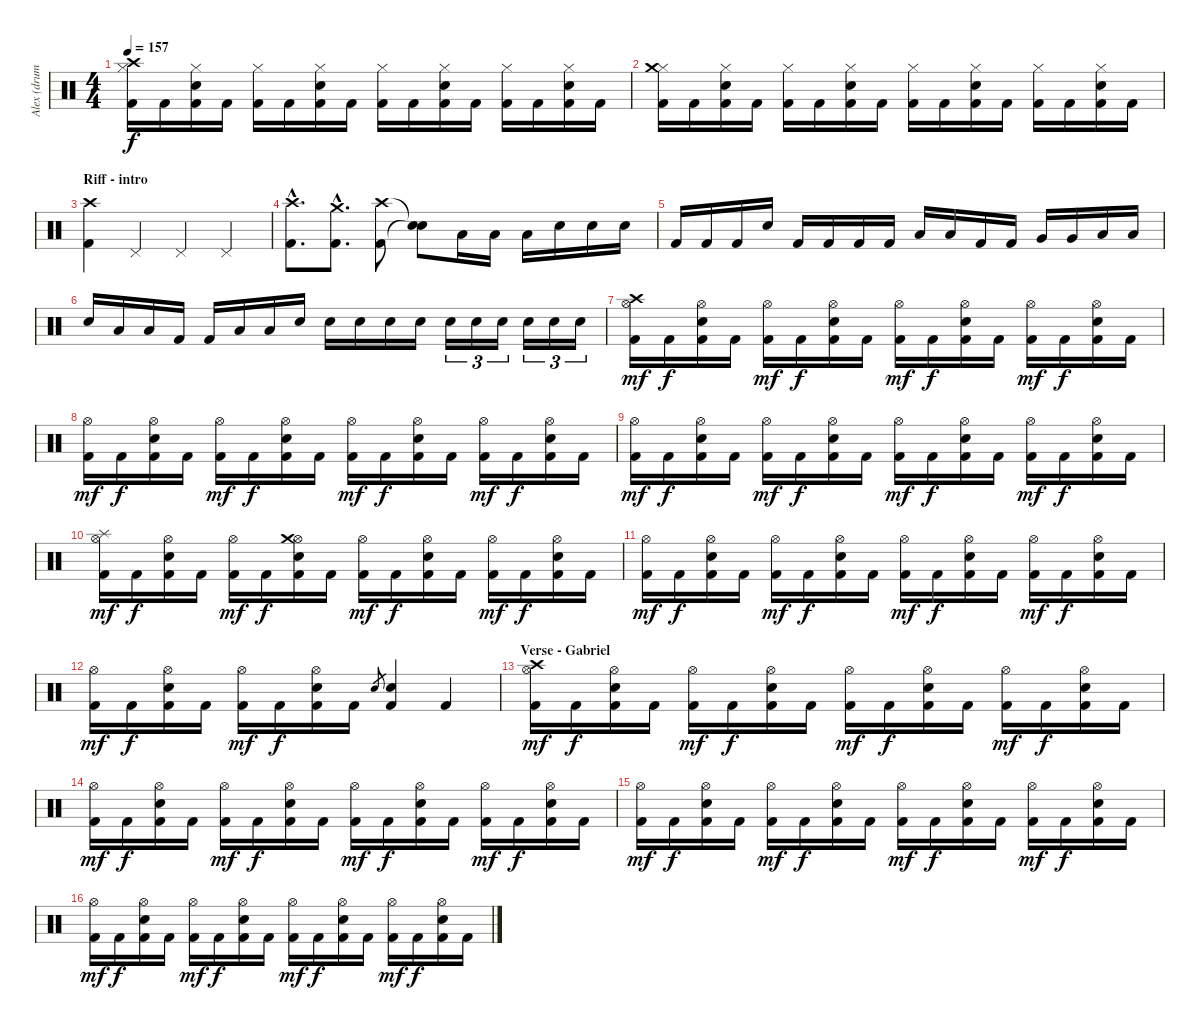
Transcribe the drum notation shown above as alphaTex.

\track ("Alex (drums)" "Alex (drum") {instrument percussion}
\staff {score}
\articulation defaults
\ts (4 4)
\tempo 157
\clef neutral
\ks c
("Hi-Hat (closed)" "Kick (hit) 2" "Crash high (hit)").16{dy f} "Kick (hit) 2".16 ("Hi-Hat (closed)" "Snare (hit) 2" "Kick (hit) 2").16 "Kick (hit) 2".16 ("Hi-Hat (closed)" "Kick (hit) 2").16 "Kick (hit) 2".16 ("Hi-Hat (closed)" "Snare (hit) 2" "Kick (hit) 2").16 "Kick (hit) 2".16 ("Hi-Hat (closed)" "Kick (hit) 2").16 "Kick (hit) 2".16 ("Hi-Hat (closed)" "Snare (hit) 2" "Kick (hit) 2").16 "Kick (hit) 2".16 ("Hi-Hat (closed)" "Kick (hit) 2").16 "Kick (hit) 2".16 ("Hi-Hat (closed)" "Snare (hit) 2" "Kick (hit) 2").16 "Kick (hit) 2".16 |
("Hi-Hat (closed)" "Kick (hit) 2" "Crash medium (hit)").16 "Kick (hit) 2".16 ("Hi-Hat (closed)" "Snare (hit) 2" "Kick (hit) 2").16 "Kick (hit) 2".16 ("Hi-Hat (closed)" "Kick (hit) 2").16 "Kick (hit) 2".16 ("Hi-Hat (closed)" "Snare (hit) 2" "Kick (hit) 2").16 "Kick (hit) 2".16 ("Hi-Hat (closed)" "Kick (hit) 2").16 "Kick (hit) 2".16 ("Hi-Hat (closed)" "Snare (hit) 2" "Kick (hit) 2").16 "Kick (hit) 2".16 ("Hi-Hat (closed)" "Kick (hit) 2").16 "Kick (hit) 2".16 ("Hi-Hat (closed)" "Snare (hit) 2" "Kick (hit) 2").16 "Kick (hit) 2".16 |
\section ("" "Riff - intro")
("Kick (hit) 2" "Crash high (hit)").4 "Pedal Hi-Hat (hit)".4 "Pedal Hi-Hat (hit)".4 "Pedal Hi-Hat (hit)".4 |
("Kick (hit) 2"{hac} "Crash high (hit)"{hac}).8{d} ("Kick (hit) 2"{hac} "Crash medium (hit)"{hac}).8{d} ("Kick (hit) 2" "Crash high (hit)").8 ("Snare (hit)"{t} "Snare (hit)"{t}).8 "Low Tom (hit)".16 "Low Tom (hit)".16 "Low Tom (hit)".16 "Snare (hit) 2".16 "Snare (hit) 2".16 "Snare (hit) 2".16 |
"Kick (hit) 2".16 "Kick (hit) 2".16 "Kick (hit) 2".16 "Snare (hit) 2".16 "Kick (hit) 2".16 "Kick (hit) 2".16 "Kick (hit) 2".16 "Kick (hit) 2".16 "Low Tom (hit)".16 "Low Tom (hit)".16 "Kick (hit) 2".16 "Kick (hit) 2".16 "Very Low Tom (hit)".16 "Very Low Tom (hit)".16 "Low Tom (hit)".16 "Low Tom (hit)".16 |
"Snare (hit) 2".16 "Low Tom (hit)".16 "Low Tom (hit)".16 "Kick (hit) 2".16 "Kick (hit) 2".16 "Low Tom (hit)".16 "Low Tom (hit)".16 "Snare (hit) 2".16 "Snare (hit) 2".16 "Snare (hit) 2".16 "Snare (hit) 2".16 "Snare (hit) 2".16 "Snare (hit) 2".16{tu (3 2)} "Snare (hit) 2".16{tu (3 2)} "Snare (hit) 2".16{tu (3 2)} "Snare (hit) 2".16{tu (3 2)} "Snare (hit) 2".16{tu (3 2)} "Snare (hit) 2".16{tu (3 2)} |
("Hi-Hat (open)" "Kick (hit) 2" "Crash high (hit)").16{dy mf} "Kick (hit) 2".16{dy f} ("Hi-Hat (open)" "Snare (hit) 2" "Kick (hit) 2").16 "Kick (hit) 2".16 ("Hi-Hat (open)" "Kick (hit) 2").16{dy mf} "Kick (hit) 2".16{dy f} ("Hi-Hat (open)" "Snare (hit) 2" "Kick (hit) 2").16 "Kick (hit) 2".16 ("Hi-Hat (open)" "Kick (hit) 2").16{dy mf} "Kick (hit) 2".16{dy f} ("Hi-Hat (open)" "Snare (hit) 2" "Kick (hit) 2").16 "Kick (hit) 2".16 ("Hi-Hat (open)" "Kick (hit) 2").16{dy mf} "Kick (hit) 2".16{dy f} ("Hi-Hat (open)" "Snare (hit) 2" "Kick (hit) 2").16 "Kick (hit) 2".16 |
("Hi-Hat (open)" "Kick (hit) 2").16{dy mf} "Kick (hit) 2".16{dy f} ("Hi-Hat (open)" "Snare (hit) 2" "Kick (hit) 2").16 "Kick (hit) 2".16 ("Hi-Hat (open)" "Kick (hit) 2").16{dy mf} "Kick (hit) 2".16{dy f} ("Hi-Hat (open)" "Snare (hit) 2" "Kick (hit) 2").16 "Kick (hit) 2".16 ("Hi-Hat (open)" "Kick (hit) 2").16{dy mf} "Kick (hit) 2".16{dy f} ("Hi-Hat (open)" "Snare (hit) 2" "Kick (hit) 2").16 "Kick (hit) 2".16 ("Hi-Hat (open)" "Kick (hit) 2").16{dy mf} "Kick (hit) 2".16{dy f} ("Hi-Hat (open)" "Snare (hit) 2" "Kick (hit) 2").16 "Kick (hit) 2".16 |
("Hi-Hat (open)" "Kick (hit) 2").16{dy mf} "Kick (hit) 2".16{dy f} ("Hi-Hat (open)" "Snare (hit) 2" "Kick (hit) 2").16 "Kick (hit) 2".16 ("Hi-Hat (open)" "Kick (hit) 2").16{dy mf} "Kick (hit) 2".16{dy f} ("Hi-Hat (open)" "Snare (hit) 2" "Kick (hit) 2").16 "Kick (hit) 2".16 ("Hi-Hat (open)" "Kick (hit) 2").16{dy mf} "Kick (hit) 2".16{dy f} ("Hi-Hat (open)" "Snare (hit) 2" "Kick (hit) 2").16 "Kick (hit) 2".16 ("Hi-Hat (open)" "Kick (hit) 2").16{dy mf} "Kick (hit) 2".16{dy f} ("Hi-Hat (open)" "Snare (hit) 2" "Kick (hit) 2").16 "Kick (hit) 2".16 |
("Hi-Hat (open)" "Kick (hit) 2" "Splash (hit)").16{dy mf} "Kick (hit) 2".16{dy f} ("Hi-Hat (open)" "Snare (hit) 2" "Kick (hit) 2").16 "Kick (hit) 2".16 ("Hi-Hat (open)" "Kick (hit) 2").16{dy mf} "Kick (hit) 2".16{dy f} ("Hi-Hat (open)" "Snare (hit) 2" "Kick (hit) 2" "Crash medium (hit)").16 "Kick (hit) 2".16 ("Hi-Hat (open)" "Kick (hit) 2").16{dy mf} "Kick (hit) 2".16{dy f} ("Hi-Hat (open)" "Snare (hit) 2" "Kick (hit) 2").16 "Kick (hit) 2".16 ("Hi-Hat (open)" "Kick (hit) 2").16{dy mf} "Kick (hit) 2".16{dy f} ("Hi-Hat (open)" "Snare (hit) 2" "Kick (hit) 2").16 "Kick (hit) 2".16 |
("Hi-Hat (open)" "Kick (hit) 2").16{dy mf} "Kick (hit) 2".16{dy f} ("Hi-Hat (open)" "Snare (hit) 2" "Kick (hit) 2").16 "Kick (hit) 2".16 ("Hi-Hat (open)" "Kick (hit) 2").16{dy mf} "Kick (hit) 2".16{dy f} ("Hi-Hat (open)" "Snare (hit) 2" "Kick (hit) 2").16 "Kick (hit) 2".16 ("Hi-Hat (open)" "Kick (hit) 2").16{dy mf} "Kick (hit) 2".16{dy f} ("Hi-Hat (open)" "Snare (hit) 2" "Kick (hit) 2").16 "Kick (hit) 2".16 ("Hi-Hat (open)" "Kick (hit) 2").16{dy mf} "Kick (hit) 2".16{dy f} ("Hi-Hat (open)" "Snare (hit) 2" "Kick (hit) 2").16 "Kick (hit) 2".16 |
("Hi-Hat (open)" "Kick (hit) 2").16{dy mf} "Kick (hit) 2".16{dy f} ("Hi-Hat (open)" "Snare (hit) 2" "Kick (hit) 2").16 "Kick (hit) 2".16 ("Hi-Hat (open)" "Kick (hit) 2").16{dy mf} "Kick (hit) 2".16{dy f} ("Hi-Hat (open)" "Snare (hit) 2" "Kick (hit) 2").16 "Kick (hit) 2".16 "Snare (hit) 2".8{gr} ("Snare (hit) 2" "Kick (hit) 2").4 "Kick (hit) 2".4 |
\section ("" "Verse - Gabriel")
("Hi-Hat (open)" "Kick (hit) 2" "Crash high (hit)").16{dy mf} "Kick (hit) 2".16{dy f} ("Hi-Hat (open)" "Snare (hit) 2" "Kick (hit) 2").16 "Kick (hit) 2".16 ("Hi-Hat (open)" "Kick (hit) 2").16{dy mf} "Kick (hit) 2".16{dy f} ("Hi-Hat (open)" "Snare (hit) 2" "Kick (hit) 2").16 "Kick (hit) 2".16 ("Hi-Hat (open)" "Kick (hit) 2").16{dy mf} "Kick (hit) 2".16{dy f} ("Hi-Hat (open)" "Snare (hit) 2" "Kick (hit) 2").16 "Kick (hit) 2".16 ("Hi-Hat (open)" "Kick (hit) 2").16{dy mf} "Kick (hit) 2".16{dy f} ("Hi-Hat (open)" "Snare (hit) 2" "Kick (hit) 2").16 "Kick (hit) 2".16 |
("Hi-Hat (open)" "Kick (hit) 2").16{dy mf} "Kick (hit) 2".16{dy f} ("Hi-Hat (open)" "Snare (hit) 2" "Kick (hit) 2").16 "Kick (hit) 2".16 ("Hi-Hat (open)" "Kick (hit) 2").16{dy mf} "Kick (hit) 2".16{dy f} ("Hi-Hat (open)" "Snare (hit) 2" "Kick (hit) 2").16 "Kick (hit) 2".16 ("Hi-Hat (open)" "Kick (hit) 2").16{dy mf} "Kick (hit) 2".16{dy f} ("Hi-Hat (open)" "Snare (hit) 2" "Kick (hit) 2").16 "Kick (hit) 2".16 ("Hi-Hat (open)" "Kick (hit) 2").16{dy mf} "Kick (hit) 2".16{dy f} ("Hi-Hat (open)" "Snare (hit) 2" "Kick (hit) 2").16 "Kick (hit) 2".16 |
("Hi-Hat (open)" "Kick (hit) 2").16{dy mf} "Kick (hit) 2".16{dy f} ("Hi-Hat (open)" "Snare (hit) 2" "Kick (hit) 2").16 "Kick (hit) 2".16 ("Hi-Hat (open)" "Kick (hit) 2").16{dy mf} "Kick (hit) 2".16{dy f} ("Hi-Hat (open)" "Snare (hit) 2" "Kick (hit) 2").16 "Kick (hit) 2".16 ("Hi-Hat (open)" "Kick (hit) 2").16{dy mf} "Kick (hit) 2".16{dy f} ("Hi-Hat (open)" "Snare (hit) 2" "Kick (hit) 2").16 "Kick (hit) 2".16 ("Hi-Hat (open)" "Kick (hit) 2").16{dy mf} "Kick (hit) 2".16{dy f} ("Hi-Hat (open)" "Snare (hit) 2" "Kick (hit) 2").16 "Kick (hit) 2".16 |
("Hi-Hat (open)" "Kick (hit) 2").16{dy mf} "Kick (hit) 2".16{dy f} ("Hi-Hat (open)" "Snare (hit) 2" "Kick (hit) 2").16 "Kick (hit) 2".16 ("Hi-Hat (open)" "Kick (hit) 2").16{dy mf} "Kick (hit) 2".16{dy f} ("Hi-Hat (open)" "Snare (hit) 2" "Kick (hit) 2").16 "Kick (hit) 2".16 ("Hi-Hat (open)" "Kick (hit) 2").16{dy mf} "Kick (hit) 2".16{dy f} ("Hi-Hat (open)" "Snare (hit) 2" "Kick (hit) 2").16 "Kick (hit) 2".16 ("Hi-Hat (open)" "Kick (hit) 2").16{dy mf} "Kick (hit) 2".16{dy f} ("Hi-Hat (open)" "Snare (hit) 2" "Kick (hit) 2").16 "Kick (hit) 2".16
